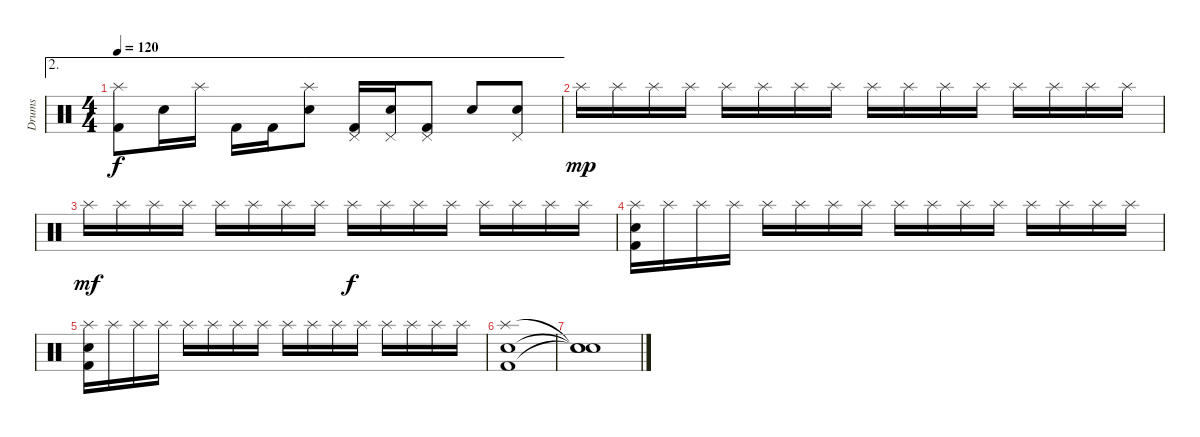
\track ("Drums" "Drums") {instrument percussion}
\staff {score}
\articulation defaults
\ae 2
\ts (4 4)
\tempo 120
\clef neutral
\ks c
("Splash (hit)" "Kick (hit) 2").8{dy f} "Electric Snare (hit)".16 "Splash (hit)".16 "Kick (hit) 2".16 "Kick (hit) 2".16 ("Splash (hit)" "Electric Snare (hit)").8 ("Pedal Hi-Hat (hit)" "Kick (hit) 2").16 ("Pedal Hi-Hat (hit)" "Electric Snare (hit)").16 ("Pedal Hi-Hat (hit)" "Kick (hit) 2").8 "Electric Snare (hit)".8 ("Pedal Hi-Hat (hit)" "Electric Snare (hit)").8 |
"Splash (hit)".16{dy mp} "Splash (hit)".16 "Splash (hit)".16 "Splash (hit)".16 "Splash (hit)".16 "Splash (hit)".16 "Splash (hit)".16 "Splash (hit)".16 "Splash (hit)".16 "Splash (hit)".16 "Splash (hit)".16 "Splash (hit)".16 "Splash (hit)".16 "Splash (hit)".16 "Splash (hit)".16 "Splash (hit)".16 |
"Splash (hit)".16{dy mf} "Splash (hit)".16 "Splash (hit)".16 "Splash (hit)".16 "Splash (hit)".16 "Splash (hit)".16 "Splash (hit)".16 "Splash (hit)".16 "Splash (hit)".16{dy f} "Splash (hit)".16 "Splash (hit)".16 "Splash (hit)".16 "Splash (hit)".16 "Splash (hit)".16 "Splash (hit)".16 "Splash (hit)".16 |
("Splash (hit)" "Electric Snare (hit)" "Kick (hit) 2").16 "Splash (hit)".16 "Splash (hit)".16 "Splash (hit)".16 "Splash (hit)".16 "Splash (hit)".16 "Splash (hit)".16 "Splash (hit)".16 "Splash (hit)".16 "Splash (hit)".16 "Splash (hit)".16 "Splash (hit)".16 "Splash (hit)".16 "Splash (hit)".16 "Splash (hit)".16 "Splash (hit)".16 |
("Splash (hit)" "Electric Snare (hit)" "Kick (hit) 2").16 "Splash (hit)".16 "Splash (hit)".16 "Splash (hit)".16 "Splash (hit)".16 "Splash (hit)".16 "Splash (hit)".16 "Splash (hit)".16 "Splash (hit)".16 "Splash (hit)".16 "Splash (hit)".16 "Splash (hit)".16 "Splash (hit)".16 "Splash (hit)".16 "Splash (hit)".16 "Splash (hit)".16 |
("Splash (hit)" "Electric Snare (hit)" "Kick (hit) 2").1 |
("Snare (hit)"{t} "Snare (hit)"{t} "Snare (hit)"{t}).1
